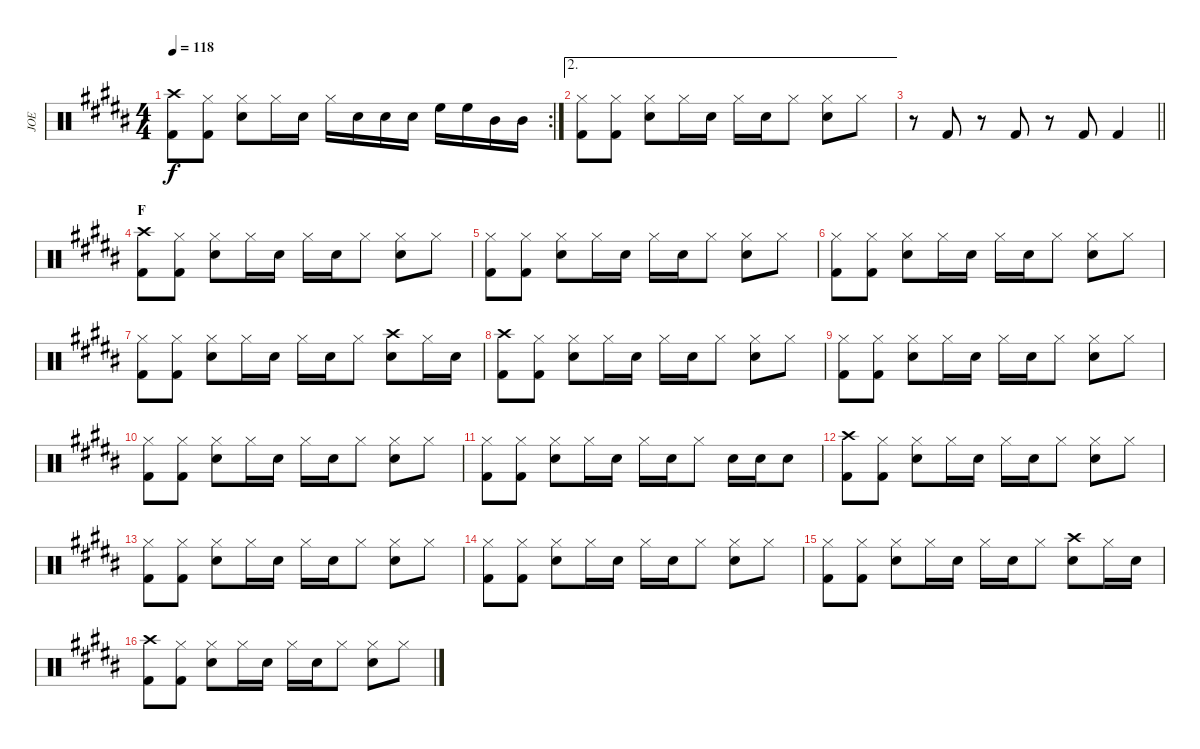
\track ("JOE" "JOE") {instrument percussion}
\staff {score}
\articulation defaults
\rc 2
\ts (4 4)
\tempo 118
\clef neutral
\ks b
("Crash high (hit)" "Kick (hit) 2").8{dy f} ("Hi-Hat (closed)" "Kick (hit) 2").8 ("Hi-Hat (closed)" "Snare (hit) 2").8 "Hi-Hat (closed)".16 "Snare (hit) 2".16 "Hi-Hat (closed)".16 "Snare (hit) 2".16 "Snare (hit) 2".16 "Snare (hit) 2".16 "High Floor Tom (hit)".16 "High Floor Tom (hit)".16 "Mid Tom (hit)".16 "Mid Tom (hit)".16 |
\ae 2
("Hi-Hat (closed)" "Kick (hit) 2").8 ("Hi-Hat (closed)" "Kick (hit) 2").8 ("Hi-Hat (closed)" "Snare (hit) 2").8 "Hi-Hat (closed)".16 "Snare (hit) 2".16 "Hi-Hat (closed)".16 "Snare (hit) 2".16 "Hi-Hat (closed)".8 ("Hi-Hat (closed)" "Snare (hit) 2").8 "Hi-Hat (closed)".8 |
\barLineRight lightlight
r.8 "Kick (hit) 2".8 r.8 "Kick (hit) 2".8 r.8 "Kick (hit) 2".8 "Kick (hit) 2".4 |
\section ("" "F")
("Crash high (hit)" "Kick (hit) 2").8 ("Hi-Hat (closed)" "Kick (hit) 2").8 ("Hi-Hat (closed)" "Snare (hit) 2").8 "Hi-Hat (closed)".16 "Snare (hit) 2".16 "Hi-Hat (closed)".16 "Snare (hit) 2".16 "Hi-Hat (closed)".8 ("Hi-Hat (closed)" "Snare (hit) 2").8 "Hi-Hat (closed)".8 |
("Hi-Hat (closed)" "Kick (hit) 2").8 ("Hi-Hat (closed)" "Kick (hit) 2").8 ("Hi-Hat (closed)" "Snare (hit) 2").8 "Hi-Hat (closed)".16 "Snare (hit) 2".16 "Hi-Hat (closed)".16 "Snare (hit) 2".16 "Hi-Hat (closed)".8 ("Hi-Hat (closed)" "Snare (hit) 2").8 "Hi-Hat (closed)".8 |
("Hi-Hat (closed)" "Kick (hit) 2").8 ("Hi-Hat (closed)" "Kick (hit) 2").8 ("Hi-Hat (closed)" "Snare (hit) 2").8 "Hi-Hat (closed)".16 "Snare (hit) 2".16 "Hi-Hat (closed)".16 "Snare (hit) 2".16 "Hi-Hat (closed)".8 ("Hi-Hat (closed)" "Snare (hit) 2").8 "Hi-Hat (closed)".8 |
("Hi-Hat (closed)" "Kick (hit) 2").8 ("Hi-Hat (closed)" "Kick (hit) 2").8 ("Hi-Hat (closed)" "Snare (hit) 2").8 "Hi-Hat (closed)".16 "Snare (hit) 2".16 "Hi-Hat (closed)".16 "Snare (hit) 2".16 "Hi-Hat (closed)".8 ("Crash high (hit)" "Snare (hit) 2").8 "Hi-Hat (closed)".16 "Snare (hit) 2".16 |
("Crash high (hit)" "Kick (hit) 2").8 ("Hi-Hat (closed)" "Kick (hit) 2").8 ("Hi-Hat (closed)" "Snare (hit) 2").8 "Hi-Hat (closed)".16 "Snare (hit) 2".16 "Hi-Hat (closed)".16 "Snare (hit) 2".16 "Hi-Hat (closed)".8 ("Hi-Hat (closed)" "Snare (hit) 2").8 "Hi-Hat (closed)".8 |
("Hi-Hat (closed)" "Kick (hit) 2").8 ("Hi-Hat (closed)" "Kick (hit) 2").8 ("Hi-Hat (closed)" "Snare (hit) 2").8 "Hi-Hat (closed)".16 "Snare (hit) 2".16 "Hi-Hat (closed)".16 "Snare (hit) 2".16 "Hi-Hat (closed)".8 ("Hi-Hat (closed)" "Snare (hit) 2").8 "Hi-Hat (closed)".8 |
("Hi-Hat (closed)" "Kick (hit) 2").8 ("Hi-Hat (closed)" "Kick (hit) 2").8 ("Hi-Hat (closed)" "Snare (hit) 2").8 "Hi-Hat (closed)".16 "Snare (hit) 2".16 "Hi-Hat (closed)".16 "Snare (hit) 2".16 "Hi-Hat (closed)".8 ("Hi-Hat (closed)" "Snare (hit) 2").8 "Hi-Hat (closed)".8 |
("Hi-Hat (closed)" "Kick (hit) 2").8 ("Hi-Hat (closed)" "Kick (hit) 2").8 ("Hi-Hat (closed)" "Snare (hit) 2").8 "Hi-Hat (closed)".16 "Snare (hit) 2".16 "Hi-Hat (closed)".16 "Snare (hit) 2".16 "Hi-Hat (closed)".8 "Snare (hit) 2".16 "Snare (hit) 2".16 "Snare (hit) 2".8 |
("Crash high (hit)" "Kick (hit) 2").8 ("Hi-Hat (closed)" "Kick (hit) 2").8 ("Hi-Hat (closed)" "Snare (hit) 2").8 "Hi-Hat (closed)".16 "Snare (hit) 2".16 "Hi-Hat (closed)".16 "Snare (hit) 2".16 "Hi-Hat (closed)".8 ("Hi-Hat (closed)" "Snare (hit) 2").8 "Hi-Hat (closed)".8 |
("Hi-Hat (closed)" "Kick (hit) 2").8 ("Hi-Hat (closed)" "Kick (hit) 2").8 ("Hi-Hat (closed)" "Snare (hit) 2").8 "Hi-Hat (closed)".16 "Snare (hit) 2".16 "Hi-Hat (closed)".16 "Snare (hit) 2".16 "Hi-Hat (closed)".8 ("Hi-Hat (closed)" "Snare (hit) 2").8 "Hi-Hat (closed)".8 |
("Hi-Hat (closed)" "Kick (hit) 2").8 ("Hi-Hat (closed)" "Kick (hit) 2").8 ("Hi-Hat (closed)" "Snare (hit) 2").8 "Hi-Hat (closed)".16 "Snare (hit) 2".16 "Hi-Hat (closed)".16 "Snare (hit) 2".16 "Hi-Hat (closed)".8 ("Hi-Hat (closed)" "Snare (hit) 2").8 "Hi-Hat (closed)".8 |
("Hi-Hat (closed)" "Kick (hit) 2").8 ("Hi-Hat (closed)" "Kick (hit) 2").8 ("Hi-Hat (closed)" "Snare (hit) 2").8 "Hi-Hat (closed)".16 "Snare (hit) 2".16 "Hi-Hat (closed)".16 "Snare (hit) 2".16 "Hi-Hat (closed)".8 ("Crash high (hit)" "Snare (hit) 2").8 "Hi-Hat (closed)".16 "Snare (hit) 2".16 |
("Crash high (hit)" "Kick (hit) 2").8 ("Hi-Hat (closed)" "Kick (hit) 2").8 ("Hi-Hat (closed)" "Snare (hit) 2").8 "Hi-Hat (closed)".16 "Snare (hit) 2".16 "Hi-Hat (closed)".16 "Snare (hit) 2".16 "Hi-Hat (closed)".8 ("Hi-Hat (closed)" "Snare (hit) 2").8 "Hi-Hat (closed)".8
